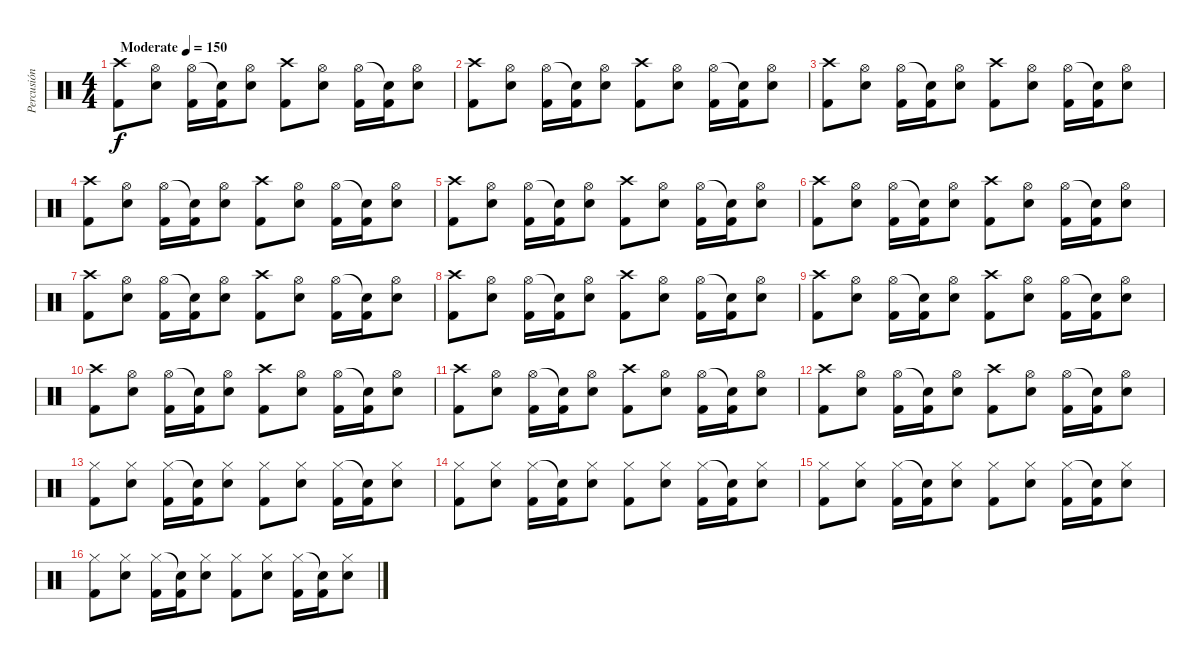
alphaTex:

\track ("Percusión" "Percusión") {instrument percussion}
\staff {score}
\articulation defaults
\ts (4 4)
\tempo (150 "Moderate")
\clef neutral
\ks c
("Crash high (hit)" "Kick (hit) 2").8{dy f} ("Hi-Hat (open)" "Electric Snare (hit)").8 ("Hi-Hat (open)" "Kick (hit) 2").16 ("Snare (hit)"{t} "Kick (hit) 2").16 ("Hi-Hat (open)" "Electric Snare (hit)").8 ("Crash high (hit)" "Kick (hit) 2").8 ("Hi-Hat (open)" "Electric Snare (hit)").8 ("Hi-Hat (open)" "Kick (hit) 2").16 ("Snare (hit)"{t} "Kick (hit) 2").16 ("Hi-Hat (open)" "Electric Snare (hit)").8 |
("Crash high (hit)" "Kick (hit) 2").8 ("Hi-Hat (open)" "Electric Snare (hit)").8 ("Hi-Hat (open)" "Kick (hit) 2").16 ("Snare (hit)"{t} "Kick (hit) 2").16 ("Hi-Hat (open)" "Electric Snare (hit)").8 ("Crash high (hit)" "Kick (hit) 2").8 ("Hi-Hat (open)" "Electric Snare (hit)").8 ("Hi-Hat (open)" "Kick (hit) 2").16 ("Snare (hit)"{t} "Kick (hit) 2").16 ("Hi-Hat (open)" "Electric Snare (hit)").8 |
("Crash high (hit)" "Kick (hit) 2").8 ("Hi-Hat (open)" "Electric Snare (hit)").8 ("Hi-Hat (open)" "Kick (hit) 2").16 ("Snare (hit)"{t} "Kick (hit) 2").16 ("Hi-Hat (open)" "Electric Snare (hit)").8 ("Crash high (hit)" "Kick (hit) 2").8 ("Hi-Hat (open)" "Electric Snare (hit)").8 ("Hi-Hat (open)" "Kick (hit) 2").16 ("Snare (hit)"{t} "Kick (hit) 2").16 ("Hi-Hat (open)" "Electric Snare (hit)").8 |
("Crash high (hit)" "Kick (hit) 2").8 ("Hi-Hat (open)" "Electric Snare (hit)").8 ("Hi-Hat (open)" "Kick (hit) 2").16 ("Snare (hit)"{t} "Kick (hit) 2").16 ("Hi-Hat (open)" "Electric Snare (hit)").8 ("Crash high (hit)" "Kick (hit) 2").8 ("Hi-Hat (open)" "Electric Snare (hit)").8 ("Hi-Hat (open)" "Kick (hit) 2").16 ("Snare (hit)"{t} "Kick (hit) 2").16 ("Hi-Hat (open)" "Electric Snare (hit)").8 |
("Crash high (hit)" "Kick (hit) 2").8 ("Hi-Hat (open)" "Electric Snare (hit)").8 ("Hi-Hat (open)" "Kick (hit) 2").16 ("Snare (hit)"{t} "Kick (hit) 2").16 ("Hi-Hat (open)" "Electric Snare (hit)").8 ("Crash high (hit)" "Kick (hit) 2").8 ("Hi-Hat (open)" "Electric Snare (hit)").8 ("Hi-Hat (open)" "Kick (hit) 2").16 ("Snare (hit)"{t} "Kick (hit) 2").16 ("Hi-Hat (open)" "Electric Snare (hit)").8 |
("Crash high (hit)" "Kick (hit) 2").8 ("Hi-Hat (open)" "Electric Snare (hit)").8 ("Hi-Hat (open)" "Kick (hit) 2").16 ("Snare (hit)"{t} "Kick (hit) 2").16 ("Hi-Hat (open)" "Electric Snare (hit)").8 ("Crash high (hit)" "Kick (hit) 2").8 ("Hi-Hat (open)" "Electric Snare (hit)").8 ("Hi-Hat (open)" "Kick (hit) 2").16 ("Snare (hit)"{t} "Kick (hit) 2").16 ("Hi-Hat (open)" "Electric Snare (hit)").8 |
("Crash high (hit)" "Kick (hit) 2").8 ("Hi-Hat (open)" "Electric Snare (hit)").8 ("Hi-Hat (open)" "Kick (hit) 2").16 ("Snare (hit)"{t} "Kick (hit) 2").16 ("Hi-Hat (open)" "Electric Snare (hit)").8 ("Crash high (hit)" "Kick (hit) 2").8 ("Hi-Hat (open)" "Electric Snare (hit)").8 ("Hi-Hat (open)" "Kick (hit) 2").16 ("Snare (hit)"{t} "Kick (hit) 2").16 ("Hi-Hat (open)" "Electric Snare (hit)").8 |
("Crash high (hit)" "Kick (hit) 2").8 ("Hi-Hat (open)" "Electric Snare (hit)").8 ("Hi-Hat (open)" "Kick (hit) 2").16 ("Snare (hit)"{t} "Kick (hit) 2").16 ("Hi-Hat (open)" "Electric Snare (hit)").8 ("Crash high (hit)" "Kick (hit) 2").8 ("Hi-Hat (open)" "Electric Snare (hit)").8 ("Hi-Hat (open)" "Kick (hit) 2").16 ("Snare (hit)"{t} "Kick (hit) 2").16 ("Hi-Hat (open)" "Electric Snare (hit)").8 |
("Crash high (hit)" "Kick (hit) 2").8 ("Hi-Hat (open)" "Electric Snare (hit)").8 ("Hi-Hat (open)" "Kick (hit) 2").16 ("Snare (hit)"{t} "Kick (hit) 2").16 ("Hi-Hat (open)" "Electric Snare (hit)").8 ("Crash high (hit)" "Kick (hit) 2").8 ("Hi-Hat (open)" "Electric Snare (hit)").8 ("Hi-Hat (open)" "Kick (hit) 2").16 ("Snare (hit)"{t} "Kick (hit) 2").16 ("Hi-Hat (open)" "Electric Snare (hit)").8 |
("Crash high (hit)" "Kick (hit) 2").8 ("Hi-Hat (open)" "Electric Snare (hit)").8 ("Hi-Hat (open)" "Kick (hit) 2").16 ("Snare (hit)"{t} "Kick (hit) 2").16 ("Hi-Hat (open)" "Electric Snare (hit)").8 ("Crash high (hit)" "Kick (hit) 2").8 ("Hi-Hat (open)" "Electric Snare (hit)").8 ("Hi-Hat (open)" "Kick (hit) 2").16 ("Snare (hit)"{t} "Kick (hit) 2").16 ("Hi-Hat (open)" "Electric Snare (hit)").8 |
("Crash high (hit)" "Kick (hit) 2").8 ("Hi-Hat (open)" "Electric Snare (hit)").8 ("Hi-Hat (open)" "Kick (hit) 2").16 ("Snare (hit)"{t} "Kick (hit) 2").16 ("Hi-Hat (open)" "Electric Snare (hit)").8 ("Crash high (hit)" "Kick (hit) 2").8 ("Hi-Hat (open)" "Electric Snare (hit)").8 ("Hi-Hat (open)" "Kick (hit) 2").16 ("Snare (hit)"{t} "Kick (hit) 2").16 ("Hi-Hat (open)" "Electric Snare (hit)").8 |
("Crash high (hit)" "Kick (hit) 2").8 ("Hi-Hat (open)" "Electric Snare (hit)").8 ("Hi-Hat (open)" "Kick (hit) 2").16 ("Snare (hit)"{t} "Kick (hit) 2").16 ("Hi-Hat (open)" "Electric Snare (hit)").8 ("Crash high (hit)" "Kick (hit) 2").8 ("Hi-Hat (open)" "Electric Snare (hit)").8 ("Hi-Hat (open)" "Kick (hit) 2").16 ("Snare (hit)"{t} "Kick (hit) 2").16 ("Hi-Hat (open)" "Electric Snare (hit)").8 |
("Hi-Hat (closed)" "Kick (hit) 2").8 ("Hi-Hat (closed)" "Electric Snare (hit)").8 ("Hi-Hat (closed)" "Kick (hit) 2").16 ("Snare (hit)"{t} "Kick (hit) 2").16 ("Hi-Hat (closed)" "Electric Snare (hit)").8 ("Hi-Hat (closed)" "Kick (hit) 2").8 ("Hi-Hat (closed)" "Electric Snare (hit)").8 ("Hi-Hat (closed)" "Kick (hit) 2").16 ("Snare (hit)"{t} "Kick (hit) 2").16 ("Hi-Hat (closed)" "Electric Snare (hit)").8 |
("Hi-Hat (closed)" "Kick (hit) 2").8 ("Hi-Hat (closed)" "Electric Snare (hit)").8 ("Hi-Hat (closed)" "Kick (hit) 2").16 ("Snare (hit)"{t} "Kick (hit) 2").16 ("Hi-Hat (closed)" "Electric Snare (hit)").8 ("Hi-Hat (closed)" "Kick (hit) 2").8 ("Hi-Hat (closed)" "Electric Snare (hit)").8 ("Hi-Hat (closed)" "Kick (hit) 2").16 ("Snare (hit)"{t} "Kick (hit) 2").16 ("Hi-Hat (closed)" "Electric Snare (hit)").8 |
("Hi-Hat (closed)" "Kick (hit) 2").8 ("Hi-Hat (closed)" "Electric Snare (hit)").8 ("Hi-Hat (closed)" "Kick (hit) 2").16 ("Snare (hit)"{t} "Kick (hit) 2").16 ("Hi-Hat (closed)" "Electric Snare (hit)").8 ("Hi-Hat (closed)" "Kick (hit) 2").8 ("Hi-Hat (closed)" "Electric Snare (hit)").8 ("Hi-Hat (closed)" "Kick (hit) 2").16 ("Snare (hit)"{t} "Kick (hit) 2").16 ("Hi-Hat (closed)" "Electric Snare (hit)").8 |
("Hi-Hat (closed)" "Kick (hit) 2").8 ("Hi-Hat (closed)" "Electric Snare (hit)").8 ("Hi-Hat (closed)" "Kick (hit) 2").16 ("Snare (hit)"{t} "Kick (hit) 2").16 ("Hi-Hat (closed)" "Electric Snare (hit)").8 ("Hi-Hat (closed)" "Kick (hit) 2").8 ("Hi-Hat (closed)" "Electric Snare (hit)").8 ("Hi-Hat (closed)" "Kick (hit) 2").16 ("Snare (hit)"{t} "Kick (hit) 2").16 ("Hi-Hat (closed)" "Electric Snare (hit)").8
